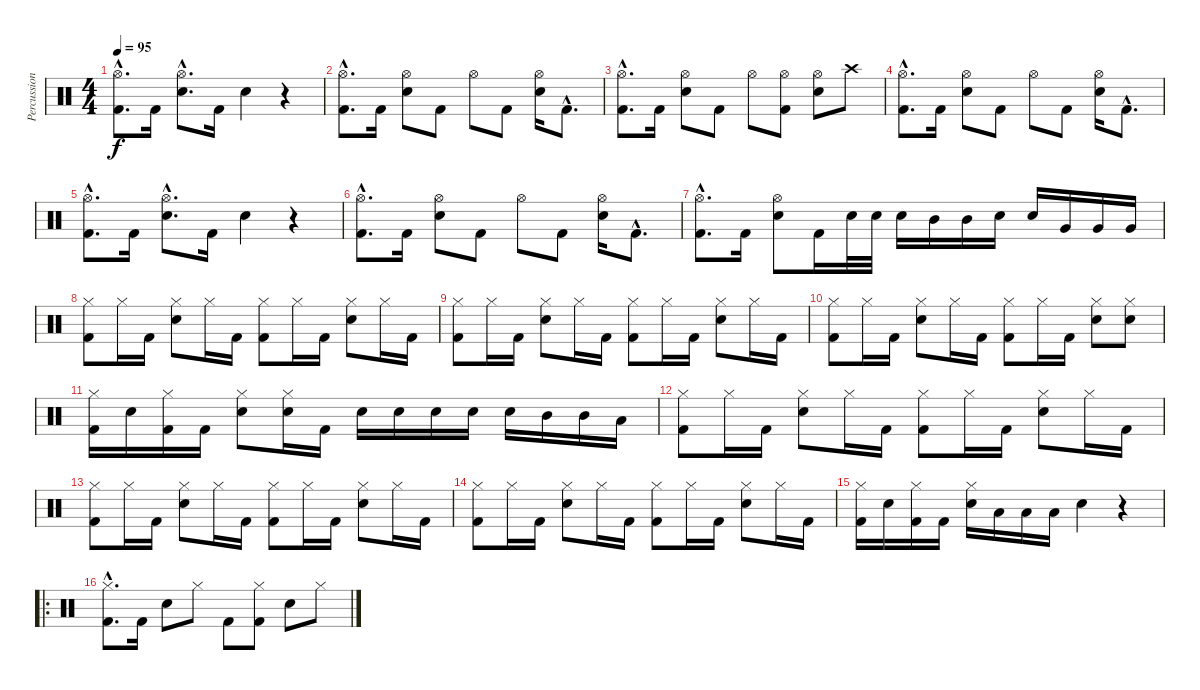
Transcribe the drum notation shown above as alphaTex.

\track ("Percussioni" "Percussion") {instrument percussion}
\staff {score}
\articulation defaults
\ts (4 4)
\tempo 95
\clef neutral
\ks c
("Hi-Hat (open)"{hac} "Kick (hit) 2"{hac}).8{d dy f} "Kick (hit) 2".16 ("Hi-Hat (open)"{hac} "Snare (hit) 2"{hac}).8{d} "Kick (hit) 2".16 "Snare (hit) 2".4 r.4 |
("Hi-Hat (open)"{hac} "Kick (hit) 2"{hac}).8{d} "Kick (hit) 2".16 ("Hi-Hat (open)" "Snare (hit) 2").8 "Kick (hit) 2".8 "Hi-Hat (open)".8 "Kick (hit) 2".8 ("Hi-Hat (open)" "Snare (hit) 2").16 "Kick (hit) 2"{hac}.8{d} |
("Hi-Hat (open)"{hac} "Kick (hit) 2"{hac}).8{d} "Kick (hit) 2".16 ("Hi-Hat (open)" "Snare (hit) 2").8 "Kick (hit) 2".8 "Hi-Hat (open)".8 ("Hi-Hat (open)" "Kick (hit) 2").8 ("Hi-Hat (open)" "Snare (hit) 2").8 "Crash high (hit)".8 |
("Hi-Hat (open)"{hac} "Kick (hit) 2"{hac}).8{d} "Kick (hit) 2".16 ("Hi-Hat (open)" "Snare (hit) 2").8 "Kick (hit) 2".8 "Hi-Hat (open)".8 "Kick (hit) 2".8 ("Hi-Hat (open)" "Snare (hit) 2").16 "Kick (hit) 2"{hac}.8{d} |
("Hi-Hat (open)"{hac} "Kick (hit) 2"{hac}).8{d} "Kick (hit) 2".16 ("Hi-Hat (open)"{hac} "Snare (hit) 2"{hac}).8{d} "Kick (hit) 2".16 "Snare (hit) 2".4 r.4 |
("Hi-Hat (open)"{hac} "Kick (hit) 2"{hac}).8{d} "Kick (hit) 2".16 ("Hi-Hat (open)" "Snare (hit) 2").8 "Kick (hit) 2".8 "Hi-Hat (open)".8 "Kick (hit) 2".8 ("Hi-Hat (open)" "Snare (hit) 2").16 "Kick (hit) 2"{hac}.8{d} |
("Hi-Hat (open)"{hac} "Kick (hit) 2"{hac}).8{d} "Kick (hit) 2".16 ("Hi-Hat (open)" "Snare (hit) 2").8 "Kick (hit) 2".16 "Snare (hit) 2".32 "Snare (hit) 2".32 "Snare (hit) 2".16 "Mid Tom (hit)".16 "Mid Tom (hit)".16 "Snare (hit) 2".16 "Snare (hit) 2".16 "Very Low Tom (hit)".16 "Very Low Tom (hit)".16 "Very Low Tom (hit)".16 |
("Hi-Hat (closed)" "Kick (hit) 2").8 "Hi-Hat (closed)".16 "Kick (hit) 2".16 ("Hi-Hat (closed)" "Snare (hit) 2").8 "Hi-Hat (closed)".16 "Kick (hit) 2".16 ("Hi-Hat (closed)" "Kick (hit) 2").8 "Hi-Hat (closed)".16 "Kick (hit) 2".16 ("Hi-Hat (closed)" "Snare (hit) 2").8 "Hi-Hat (closed)".16 "Kick (hit) 2".16 |
("Hi-Hat (closed)" "Kick (hit) 2").8 "Hi-Hat (closed)".16 "Kick (hit) 2".16 ("Hi-Hat (closed)" "Snare (hit) 2").8 "Hi-Hat (closed)".16 "Kick (hit) 2".16 ("Hi-Hat (closed)" "Kick (hit) 2").8 "Hi-Hat (closed)".16 "Kick (hit) 2".16 ("Hi-Hat (closed)" "Snare (hit) 2").8 "Hi-Hat (closed)".16 "Kick (hit) 2".16 |
("Hi-Hat (closed)" "Kick (hit) 2").8 "Hi-Hat (closed)".16 "Kick (hit) 2".16 ("Hi-Hat (closed)" "Snare (hit) 2").8 "Hi-Hat (closed)".16 "Kick (hit) 2".16 ("Hi-Hat (closed)" "Kick (hit) 2").8 "Hi-Hat (closed)".16 "Kick (hit) 2".16 ("Hi-Hat (closed)" "Snare (hit) 2").8 ("Hi-Hat (closed)" "Snare (hit) 2").8 |
("Hi-Hat (closed)" "Kick (hit) 2").16 "Snare (hit) 2".16 ("Hi-Hat (closed)" "Kick (hit) 2").16 "Kick (hit) 2".16 ("Hi-Hat (closed)" "Snare (hit) 2").8 ("Hi-Hat (closed)" "Snare (hit) 2").16 "Kick (hit) 2".16 "Snare (hit) 2".16 "Snare (hit) 2".16 "Snare (hit) 2".16 "Snare (hit) 2".16 "Snare (hit) 2".16 "Mid Tom (hit)".16 "Mid Tom (hit)".16 "Low Tom (hit)".16 |
("Hi-Hat (closed)" "Kick (hit) 2").8 "Hi-Hat (closed)".16 "Kick (hit) 2".16 ("Hi-Hat (closed)" "Snare (hit) 2").8 "Hi-Hat (closed)".16 "Kick (hit) 2".16 ("Hi-Hat (closed)" "Kick (hit) 2").8 "Hi-Hat (closed)".16 "Kick (hit) 2".16 ("Hi-Hat (closed)" "Snare (hit) 2").8 "Hi-Hat (closed)".16 "Kick (hit) 2".16 |
("Hi-Hat (closed)" "Kick (hit) 2").8 "Hi-Hat (closed)".16 "Kick (hit) 2".16 ("Hi-Hat (closed)" "Snare (hit) 2").8 "Hi-Hat (closed)".16 "Kick (hit) 2".16 ("Hi-Hat (closed)" "Kick (hit) 2").8 "Hi-Hat (closed)".16 "Kick (hit) 2".16 ("Hi-Hat (closed)" "Snare (hit) 2").8 "Hi-Hat (closed)".16 "Kick (hit) 2".16 |
("Hi-Hat (closed)" "Kick (hit) 2").8 "Hi-Hat (closed)".16 "Kick (hit) 2".16 ("Hi-Hat (closed)" "Snare (hit) 2").8 "Hi-Hat (closed)".16 "Kick (hit) 2".16 ("Hi-Hat (closed)" "Kick (hit) 2").8 "Hi-Hat (closed)".16 "Kick (hit) 2".16 ("Hi-Hat (closed)" "Snare (hit) 2").8 "Hi-Hat (closed)".16 "Kick (hit) 2".16 |
("Hi-Hat (closed)" "Kick (hit) 2").16 "Snare (hit) 2".16 ("Hi-Hat (closed)" "Kick (hit) 2").16 "Kick (hit) 2".16 ("Hi-Hat (closed)" "Snare (hit) 2").16 "Low Tom (hit)".16 "Low Tom (hit)".16 "Low Tom (hit)".16 "Snare (hit) 2".4 r.4 |
\ro
("Hi-Hat (closed)"{hac} "Kick (hit) 2"{hac}).8{d} "Kick (hit) 2".16 "Snare (hit) 2".8 "Hi-Hat (closed)".8 "Kick (hit) 2".8 ("Hi-Hat (closed)" "Kick (hit) 2").8 "Snare (hit) 2".8 "Hi-Hat (closed)".8
